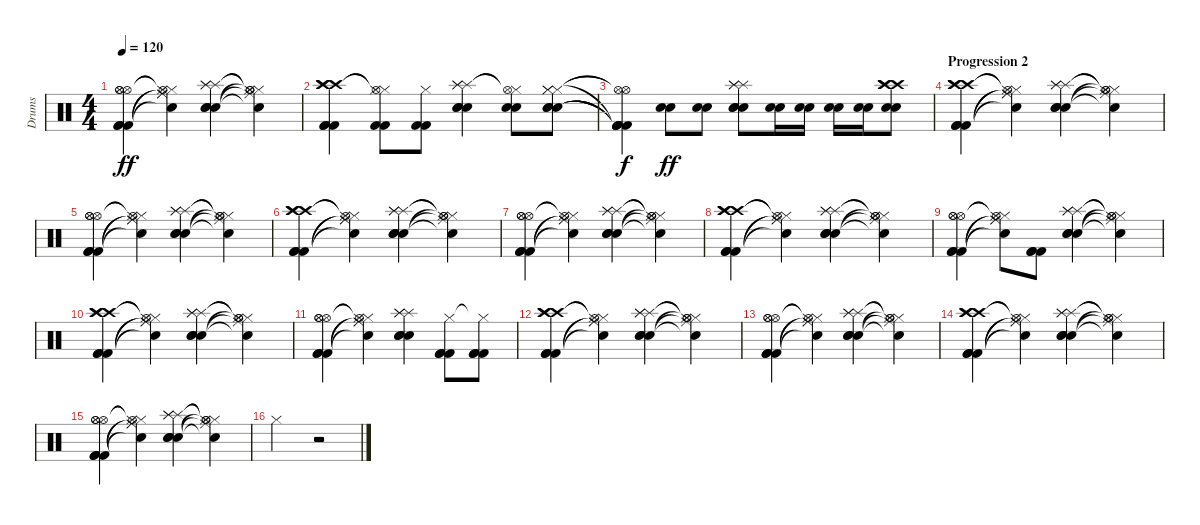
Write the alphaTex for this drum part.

\track ("Drums" "Drums") {instrument percussion}
\staff {score}
\articulation defaults
\ts (4 4)
\tempo 120
\clef neutral
\ks c
("Hi-Hat (open)" "Hi-Hat (open)" "Hi-Hat (open)" "Kick (hit) 2" "Kick (hit) 2" "Kick (hit) 2").4{dy ff} ("Hi-Hat (closed)" "Hi-Hat (closed)"{t} "Hi-Hat (open)"{t} "Ride (middle)"{t} "Ride (middle)"{t} "Snare (hit)"{t}).4 ("Splash (hit)" "Splash (hit)" "Splash (hit)" "Snare (hit) 2" "Snare (hit) 2" "Snare (hit) 2").4 ("Hi-Hat (closed)" "Hi-Hat (closed)"{t} "Hi-Hat (open)"{t} "Hi-Hat (open)"{t} "Ride (middle)"{t} "Snare (hit)"{t}).4 |
("Crash high (hit)" "Crash high (hit)" "Crash high (hit)" "Kick (hit) 2" "Kick (hit) 2" "Kick (hit) 2").4 ("Hi-Hat (closed)" "Hi-Hat (closed)"{t} "Hi-Hat (open)"{t} "Kick (hit) 2" "Kick (hit) 2").8 ("Hi-Hat (closed)" "Kick (hit) 2" "Kick (hit) 2").8 ("Splash (hit)" "Splash (hit)" "Splash (hit)" "Snare (hit) 2" "Snare (hit) 2" "Snare (hit) 2").4 ("Hi-Hat (closed)"{t} "Hi-Hat (open)"{t} "Snare (hit) 2" "Snare (hit) 2").8 ("Hi-Hat (closed)" "Hi-Hat (closed)" "Hi-Hat (closed)" "Snare (hit) 2" "Snare (hit) 2" "Snare (hit) 2").8 |
("Kick (hit) 2"{t} "Hi-Hat (open)"{t} "Hi-Hat (open)"{t} "Kick (hit) 2"{t} "Kick (hit) 2"{t} "Kick (hit) 2"{t}).4{dy f} ("Snare (hit) 2" "Snare (hit) 2").8{dy ff} ("Snare (hit) 2" "Snare (hit) 2").8 ("Splash (hit)" "Splash (hit)" "Splash (hit)" "Snare (hit) 2" "Snare (hit) 2" "Snare (hit) 2").8 ("Snare (hit) 2" "Snare (hit) 2").16 ("Snare (hit) 2" "Snare (hit) 2").16 ("Snare (hit) 2" "Snare (hit) 2").16 ("Snare (hit) 2" "Snare (hit) 2").16 ("Crash high (hit)" "Crash high (hit)" "Crash high (hit)" "Snare (hit) 2" "Snare (hit) 2").8 |
\section ("" "Progression 2")
("Crash high (hit)" "Crash high (hit)" "Crash high (hit)" "Kick (hit) 2" "Kick (hit) 2" "Kick (hit) 2").4 ("Hi-Hat (closed)" "Hi-Hat (closed)"{t} "Hi-Hat (open)"{t} "Ride (middle)"{t} "Ride (middle)"{t} "Snare (hit)"{t}).4 ("Splash (hit)" "Splash (hit)" "Splash (hit)" "Snare (hit) 2" "Snare (hit) 2" "Snare (hit) 2").4 ("Hi-Hat (closed)" "Hi-Hat (closed)"{t} "Hi-Hat (open)"{t} "Hi-Hat (open)"{t} "Ride (middle)"{t} "Snare (hit)"{t}).4 |
("Hi-Hat (open)" "Hi-Hat (open)" "Hi-Hat (open)" "Kick (hit) 2" "Kick (hit) 2" "Kick (hit) 2").4 ("Hi-Hat (closed)" "Hi-Hat (closed)"{t} "Hi-Hat (open)"{t} "Ride (middle)"{t} "Ride (middle)"{t} "Snare (hit)"{t}).4 ("Splash (hit)" "Splash (hit)" "Splash (hit)" "Snare (hit) 2" "Snare (hit) 2" "Snare (hit) 2").4 ("Hi-Hat (closed)" "Hi-Hat (closed)"{t} "Hi-Hat (open)"{t} "Hi-Hat (open)"{t} "Ride (middle)"{t} "Snare (hit)"{t}).4 |
("Crash high (hit)" "Crash high (hit)" "Crash high (hit)" "Kick (hit) 2" "Kick (hit) 2" "Kick (hit) 2").4 ("Hi-Hat (closed)" "Hi-Hat (closed)"{t} "Hi-Hat (open)"{t} "Ride (middle)"{t} "Ride (middle)"{t} "Snare (hit)"{t}).4 ("Splash (hit)" "Splash (hit)" "Splash (hit)" "Snare (hit) 2" "Snare (hit) 2" "Snare (hit) 2").4 ("Hi-Hat (closed)" "Hi-Hat (closed)"{t} "Hi-Hat (open)"{t} "Hi-Hat (open)"{t} "Ride (middle)"{t} "Snare (hit)"{t}).4 |
("Hi-Hat (open)" "Hi-Hat (open)" "Hi-Hat (open)" "Kick (hit) 2" "Kick (hit) 2" "Kick (hit) 2").4 ("Hi-Hat (closed)" "Hi-Hat (closed)"{t} "Hi-Hat (open)"{t} "Ride (middle)"{t} "Ride (middle)"{t} "Snare (hit)"{t}).4 ("Splash (hit)" "Splash (hit)" "Splash (hit)" "Snare (hit) 2" "Snare (hit) 2" "Snare (hit) 2").4 ("Hi-Hat (closed)" "Hi-Hat (closed)"{t} "Hi-Hat (open)"{t} "Hi-Hat (open)"{t} "Ride (middle)"{t} "Snare (hit)"{t}).4 |
("Crash high (hit)" "Crash high (hit)" "Crash high (hit)" "Kick (hit) 2" "Kick (hit) 2" "Kick (hit) 2").4 ("Hi-Hat (closed)" "Hi-Hat (closed)"{t} "Hi-Hat (open)"{t} "Ride (middle)"{t} "Ride (middle)"{t} "Snare (hit)"{t}).4 ("Splash (hit)" "Splash (hit)" "Splash (hit)" "Snare (hit) 2" "Snare (hit) 2" "Snare (hit) 2").4 ("Hi-Hat (closed)" "Hi-Hat (closed)"{t} "Hi-Hat (open)"{t} "Hi-Hat (open)"{t} "Ride (middle)"{t} "Snare (hit)"{t}).4 |
("Hi-Hat (open)" "Hi-Hat (open)" "Hi-Hat (open)" "Kick (hit) 2" "Kick (hit) 2" "Kick (hit) 2").4 ("Hi-Hat (closed)" "Hi-Hat (closed)"{t} "Hi-Hat (open)"{t} "Ride (middle)"{t} "Ride (middle)"{t} "Snare (hit)"{t}).8 ("Kick (hit) 2" "Kick (hit) 2" "Kick (hit) 2").8 ("Splash (hit)" "Splash (hit)" "Splash (hit)" "Snare (hit) 2" "Snare (hit) 2" "Snare (hit) 2").4 ("Hi-Hat (closed)" "Hi-Hat (closed)"{t} "Hi-Hat (open)"{t} "Hi-Hat (open)"{t} "Ride (middle)"{t} "Snare (hit)"{t}).4 |
("Crash high (hit)" "Crash high (hit)" "Crash high (hit)" "Kick (hit) 2" "Kick (hit) 2" "Kick (hit) 2").4 ("Hi-Hat (closed)" "Hi-Hat (closed)"{t} "Hi-Hat (open)"{t} "Ride (middle)"{t} "Ride (middle)"{t} "Snare (hit)"{t}).4 ("Splash (hit)" "Splash (hit)" "Splash (hit)" "Snare (hit) 2" "Snare (hit) 2" "Snare (hit) 2").4 ("Hi-Hat (closed)" "Hi-Hat (closed)"{t} "Hi-Hat (open)"{t} "Hi-Hat (open)"{t} "Ride (middle)"{t} "Snare (hit)"{t}).4 |
("Hi-Hat (open)" "Hi-Hat (open)" "Hi-Hat (open)" "Kick (hit) 2" "Kick (hit) 2" "Kick (hit) 2").4 ("Hi-Hat (closed)" "Hi-Hat (closed)"{t} "Hi-Hat (open)"{t} "Ride (middle)"{t} "Ride (middle)"{t} "Snare (hit)"{t}).4 ("Splash (hit)" "Splash (hit)" "Splash (hit)" "Snare (hit) 2" "Snare (hit) 2" "Snare (hit) 2").4 ("Hi-Hat (closed)" "Kick (hit) 2" "Kick (hit) 2" "Kick (hit) 2").8 ("Hi-Hat (closed)"{t} "Kick (hit) 2" "Kick (hit) 2" "Kick (hit) 2").8 |
("Crash high (hit)" "Crash high (hit)" "Crash high (hit)" "Kick (hit) 2" "Kick (hit) 2" "Kick (hit) 2").4 ("Hi-Hat (closed)" "Hi-Hat (closed)"{t} "Hi-Hat (open)"{t} "Ride (middle)"{t} "Ride (middle)"{t} "Snare (hit)"{t}).4 ("Splash (hit)" "Splash (hit)" "Splash (hit)" "Snare (hit) 2" "Snare (hit) 2" "Snare (hit) 2").4 ("Hi-Hat (closed)" "Hi-Hat (closed)"{t} "Hi-Hat (open)"{t} "Hi-Hat (open)"{t} "Ride (middle)"{t} "Snare (hit)"{t}).4 |
("Hi-Hat (open)" "Hi-Hat (open)" "Hi-Hat (open)" "Kick (hit) 2" "Kick (hit) 2" "Kick (hit) 2").4 ("Hi-Hat (closed)" "Hi-Hat (closed)"{t} "Hi-Hat (open)"{t} "Ride (middle)"{t} "Ride (middle)"{t} "Snare (hit)"{t}).4 ("Splash (hit)" "Splash (hit)" "Splash (hit)" "Snare (hit) 2" "Snare (hit) 2" "Snare (hit) 2").4 ("Hi-Hat (closed)" "Hi-Hat (closed)"{t} "Hi-Hat (open)"{t} "Hi-Hat (open)"{t} "Ride (middle)"{t} "Snare (hit)"{t}).4 |
("Crash high (hit)" "Crash high (hit)" "Crash high (hit)" "Kick (hit) 2" "Kick (hit) 2" "Kick (hit) 2").4 ("Hi-Hat (closed)" "Hi-Hat (closed)"{t} "Hi-Hat (open)"{t} "Ride (middle)"{t} "Ride (middle)"{t} "Snare (hit)"{t}).4 ("Splash (hit)" "Splash (hit)" "Splash (hit)" "Snare (hit) 2" "Snare (hit) 2" "Snare (hit) 2").4 ("Hi-Hat (closed)" "Hi-Hat (closed)"{t} "Hi-Hat (open)"{t} "Hi-Hat (open)"{t} "Ride (middle)"{t} "Snare (hit)"{t}).4 |
("Hi-Hat (open)" "Hi-Hat (open)" "Hi-Hat (open)" "Kick (hit) 2" "Kick (hit) 2" "Kick (hit) 2").4 ("Hi-Hat (closed)" "Hi-Hat (closed)"{t} "Hi-Hat (open)"{t} "Ride (middle)"{t} "Ride (middle)"{t} "Snare (hit)"{t}).4 ("Splash (hit)" "Splash (hit)" "Splash (hit)" "Snare (hit) 2" "Snare (hit) 2" "Snare (hit) 2").4 ("Hi-Hat (closed)" "Hi-Hat (closed)"{t} "Hi-Hat (open)"{t} "Hi-Hat (open)"{t} "Ride (middle)"{t} "Snare (hit)"{t}).4 |
"Hi-Hat (closed)".2 r.2
